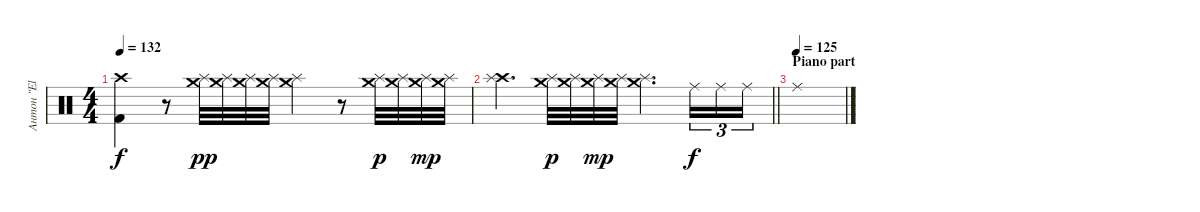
\track ("Антон \"El Bastardo\" Смольянин" "Антон \"El ") {instrument percussion}
\staff {score}
\articulation defaults
\ts (4 4)
\tempo 132
\clef neutral
\ks c
("Crash high (hit)" "Kick (hit) 2").4{dy f} r.8 ("Crash medium (hit)" "Splash (hit)").32{dy pp} ("Crash medium (hit)" "Splash (hit)").32 ("Crash medium (hit)" "Splash (hit)").32 ("Crash medium (hit)" "Splash (hit)").32 ("Crash medium (hit)" "Splash (hit)").4 r.8 ("Crash medium (hit)" "Splash (hit)").32{dy p} ("Crash medium (hit)" "Splash (hit)").32 ("Crash medium (hit)" "Splash (hit)").32{dy mp} ("Crash medium (hit)" "Splash (hit)").32 |
\barLineRight lightlight
("Crash high (hit)" "Splash (hit)").4{d} ("Crash medium (hit)" "Splash (hit)").32{dy p} ("Crash medium (hit)" "Splash (hit)").32 ("Crash medium (hit)" "Splash (hit)").32{dy mp} ("Crash medium (hit)" "Splash (hit)").32 ("Crash medium (hit)" "Splash (hit)").4{d} "Ride (middle)".16{tu (3 2) dy f} "Ride (middle)".16{tu (3 2)} "Ride (middle)".16{tu (3 2)} |
\section ("" "Piano part")
\tempo (125)
"Ride (middle)".1
